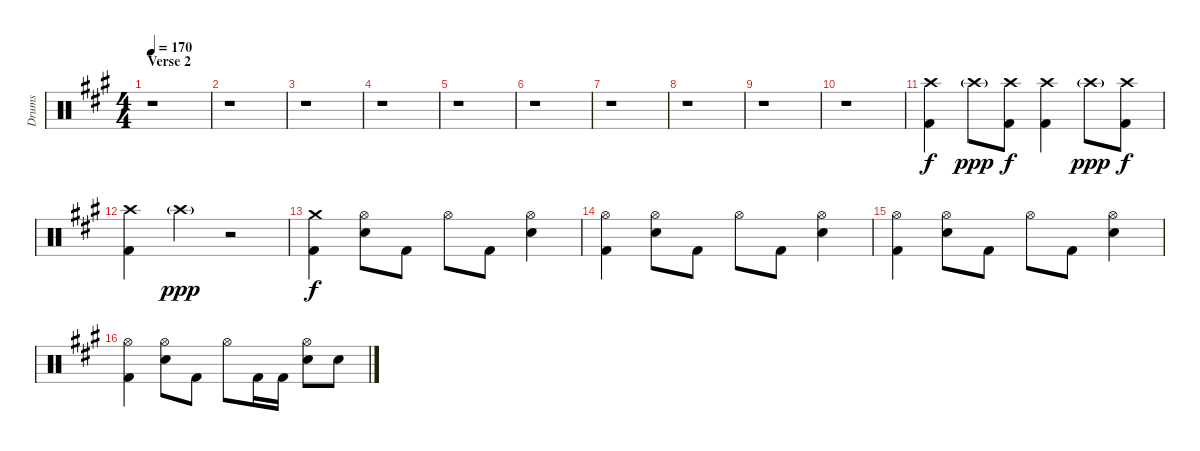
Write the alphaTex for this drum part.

\track ("Drums" "Drums") {instrument percussion}
\staff {score}
\articulation defaults
\ts (4 4)
\section ("" "Verse 2")
\tempo 170
\clef neutral
\ks a
r.1{dy f} |
r.1 |
r.1 |
r.1 |
r.1 |
r.1 |
r.1 |
r.1 |
r.1 |
r.1 |
("Crash high (hit)" "Kick (hit) 2").4 "Crash high (hit)"{g}.8{dy ppp} ("Crash high (hit)" "Kick (hit) 2").8{dy f} ("Crash high (hit)" "Kick (hit) 2").4 "Crash high (hit)"{g}.8{dy ppp} ("Crash high (hit)" "Kick (hit) 2").8{dy f} |
("Crash high (hit)" "Kick (hit) 2").4 "Crash high (hit)"{g}.4{dy ppp} r.2 |
("Crash medium (hit)" "Kick (hit) 2").4{dy f} ("Hi-Hat (open)" "Electric Snare (hit)").8 "Kick (hit) 2".8 "Hi-Hat (open)".8 "Kick (hit) 2".8 ("Hi-Hat (open)" "Electric Snare (hit)").4 |
("Hi-Hat (open)" "Kick (hit) 2").4 ("Hi-Hat (open)" "Electric Snare (hit)").8 "Kick (hit) 2".8 "Hi-Hat (open)".8 "Kick (hit) 2".8 ("Hi-Hat (open)" "Electric Snare (hit)").4 |
("Hi-Hat (open)" "Kick (hit) 2").4 ("Hi-Hat (open)" "Electric Snare (hit)").8 "Kick (hit) 2".8 "Hi-Hat (open)".8 "Kick (hit) 2".8 ("Hi-Hat (open)" "Electric Snare (hit)").4 |
("Hi-Hat (open)" "Kick (hit) 2").4 ("Hi-Hat (open)" "Electric Snare (hit)").8 "Kick (hit) 2".8 "Hi-Hat (open)".8 "Kick (hit) 2".16 "Kick (hit) 2".16 ("Hi-Hat (open)" "Electric Snare (hit)").8 "Electric Snare (hit)".8
